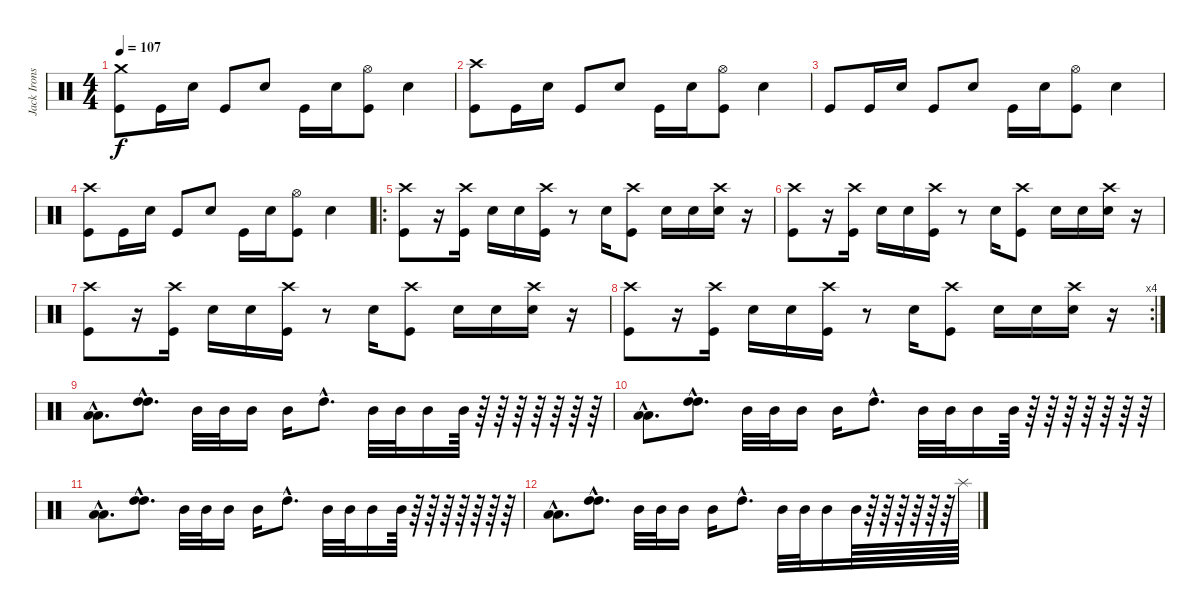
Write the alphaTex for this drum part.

\track ("Jack Irons" "Jack Irons") {instrument percussion}
\staff {score}
\articulation defaults
\ts (4 4)
\tempo 107
\clef neutral
\ks c
("Crash medium (hit)" "Kick (hit)").8{dy f} "Kick (hit)".16 "Electric Snare (hit)".16 "Kick (hit)".8 "Electric Snare (hit)".8 "Kick (hit)".16 "Electric Snare (hit)".16 ("Hi-Hat (open)" "Kick (hit)").8 "Electric Snare (hit)".4 |
("Crash high (hit)" "Kick (hit)").8 "Kick (hit)".16 "Electric Snare (hit)".16 "Kick (hit)".8 "Electric Snare (hit)".8 "Kick (hit)".16 "Electric Snare (hit)".16 ("Hi-Hat (open)" "Kick (hit)").8 "Electric Snare (hit)".4 |
"Kick (hit)".8 "Kick (hit)".16 "Electric Snare (hit)".16 "Kick (hit)".8 "Electric Snare (hit)".8 "Kick (hit)".16 "Electric Snare (hit)".16 ("Hi-Hat (open)" "Kick (hit)").8 "Electric Snare (hit)".4 |
("Crash high (hit)" "Kick (hit)").8 "Kick (hit)".16 "Electric Snare (hit)".16 "Kick (hit)".8 "Electric Snare (hit)".8 "Kick (hit)".16 "Electric Snare (hit)".16 ("Hi-Hat (open)" "Kick (hit)").8 "Electric Snare (hit)".4 |
\ro
("Crash high (hit)" "Kick (hit)").8 r.16 ("Crash high (hit)" "Kick (hit)").16 "Electric Snare (hit)".16 "Electric Snare (hit)".16 ("Crash high (hit)" "Kick (hit)").16 r.8 "Electric Snare (hit)".16 ("Crash high (hit)" "Kick (hit)").8 "Electric Snare (hit)".16 "Electric Snare (hit)".16 ("Crash high (hit)" "Electric Snare (hit)").16 r.16 |
("Crash high (hit)" "Kick (hit)").8 r.16 ("Crash high (hit)" "Kick (hit)").16 "Electric Snare (hit)".16 "Electric Snare (hit)".16 ("Crash high (hit)" "Kick (hit)").16 r.8 "Electric Snare (hit)".16 ("Crash high (hit)" "Kick (hit)").8 "Electric Snare (hit)".16 "Electric Snare (hit)".16 ("Crash high (hit)" "Electric Snare (hit)").16 r.16 |
("Crash high (hit)" "Kick (hit)").8 r.16 ("Crash high (hit)" "Kick (hit)").16 "Electric Snare (hit)".16 "Electric Snare (hit)".16 ("Crash high (hit)" "Kick (hit)").16 r.8 "Electric Snare (hit)".16 ("Crash high (hit)" "Kick (hit)").8 "Electric Snare (hit)".16 "Electric Snare (hit)".16 ("Crash high (hit)" "Electric Snare (hit)").16 r.16 |
\rc 4
("Crash high (hit)" "Kick (hit)").8 r.16 ("Crash high (hit)" "Kick (hit)").16 "Electric Snare (hit)".16 "Electric Snare (hit)".16 ("Crash high (hit)" "Kick (hit)").16 r.8 "Electric Snare (hit)".16 ("Crash high (hit)" "Kick (hit)").8 "Electric Snare (hit)".16 "Electric Snare (hit)".16 ("Crash high (hit)" "Electric Snare (hit)").16 r.16 |
("Low Tom (hit)"{hac} "Low Tom (hit)"{hac}).8{d} ("High Tom (hit)"{hac} "High Tom (hit)"{hac}).8{d} "Mid Tom (hit)".32 "Mid Tom (hit)".32 "Mid Tom (hit)".16 "Mid Tom (hit)".16 "High Tom (hit)"{hac}.8{d} "Mid Tom (hit)".32 "Mid Tom (hit)".32 "Mid Tom (hit)".16 "Mid Tom (hit)".64 r.64 r.64 r.64 r.64 r.64 r.64 r.64 |
("Low Tom (hit)"{hac} "Low Tom (hit)"{hac}).8{d} ("High Tom (hit)"{hac} "High Tom (hit)"{hac}).8{d} "Mid Tom (hit)".32 "Mid Tom (hit)".32 "Mid Tom (hit)".16 "Mid Tom (hit)".16 "High Tom (hit)"{hac}.8{d} "Mid Tom (hit)".32 "Mid Tom (hit)".32 "Mid Tom (hit)".16 "Mid Tom (hit)".64 r.64 r.64 r.64 r.64 r.64 r.64 r.64 |
("Low Tom (hit)"{hac} "Low Tom (hit)"{hac}).8{d} ("High Tom (hit)"{hac} "High Tom (hit)"{hac}).8{d} "Mid Tom (hit)".32 "Mid Tom (hit)".32 "Mid Tom (hit)".16 "Mid Tom (hit)".16 "High Tom (hit)"{hac}.8{d} "Mid Tom (hit)".32 "Mid Tom (hit)".32 "Mid Tom (hit)".16 "Mid Tom (hit)".64 r.64 r.64 r.64 r.64 r.64 r.64 r.64 |
("Low Tom (hit)"{hac} "Low Tom (hit)"{hac}).8{d} ("High Tom (hit)"{hac} "High Tom (hit)"{hac}).8{d} "Mid Tom (hit)".32 "Mid Tom (hit)".32 "Mid Tom (hit)".16 "Mid Tom (hit)".16 "High Tom (hit)"{hac}.8{d} "Mid Tom (hit)".32 "Mid Tom (hit)".32 "Mid Tom (hit)".16 "Mid Tom (hit)".64 r.64 r.64 r.64 r.64 r.64 r.64 "Splash (hit)".64
